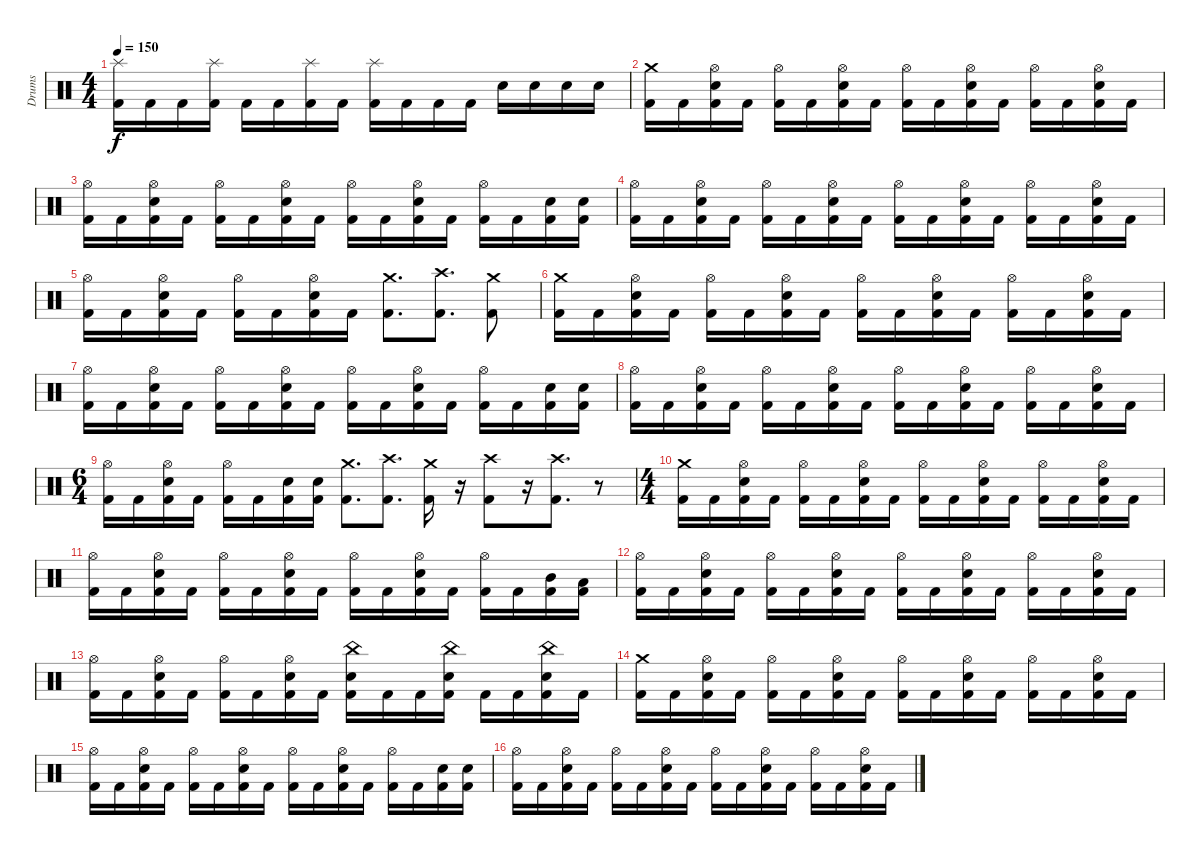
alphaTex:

\track ("Drums" "Drums") {instrument percussion}
\staff {score}
\articulation defaults
\ts (4 4)
\tempo 150
\clef neutral
\ks c
("Splash (hit)" "Kick (hit) 2").16{dy f} "Kick (hit) 2".16 "Kick (hit) 2".16 ("Splash (hit)" "Kick (hit) 2").16 "Kick (hit) 2".16 "Kick (hit) 2".16 ("Splash (hit)" "Kick (hit) 2").16 "Kick (hit) 2".16 ("Splash (hit)" "Kick (hit) 2").16 "Kick (hit) 2".16 "Kick (hit) 2".16 "Kick (hit) 2".16 "Electric Snare (hit)".16 "Electric Snare (hit)".16 "Electric Snare (hit)".16 "Electric Snare (hit)".16 |
("Crash medium (hit)" "Kick (hit) 2").16 "Kick (hit) 2".16 ("Hi-Hat (open)" "Electric Snare (hit)" "Kick (hit) 2").16 "Kick (hit) 2".16 ("Hi-Hat (open)" "Kick (hit) 2").16 "Kick (hit) 2".16 ("Hi-Hat (open)" "Electric Snare (hit)" "Kick (hit) 2").16 "Kick (hit) 2".16 ("Hi-Hat (open)" "Kick (hit) 2").16 "Kick (hit) 2".16 ("Hi-Hat (open)" "Electric Snare (hit)" "Kick (hit) 2").16 "Kick (hit) 2".16 ("Hi-Hat (open)" "Kick (hit) 2").16 "Kick (hit) 2".16 ("Hi-Hat (open)" "Electric Snare (hit)" "Kick (hit) 2").16 "Kick (hit) 2".16 |
("Hi-Hat (open)" "Kick (hit) 2").16 "Kick (hit) 2".16 ("Hi-Hat (open)" "Electric Snare (hit)" "Kick (hit) 2").16 "Kick (hit) 2".16 ("Hi-Hat (open)" "Kick (hit) 2").16 "Kick (hit) 2".16 ("Hi-Hat (open)" "Electric Snare (hit)" "Kick (hit) 2").16 "Kick (hit) 2".16 ("Hi-Hat (open)" "Kick (hit) 2").16 "Kick (hit) 2".16 ("Hi-Hat (open)" "Electric Snare (hit)" "Kick (hit) 2").16 "Kick (hit) 2".16 ("Hi-Hat (open)" "Kick (hit) 2").16 "Kick (hit) 2".16 ("Electric Snare (hit)" "Kick (hit) 2").16 ("Electric Snare (hit)" "Kick (hit) 2").16 |
("Hi-Hat (open)" "Kick (hit) 2").16 "Kick (hit) 2".16 ("Hi-Hat (open)" "Electric Snare (hit)" "Kick (hit) 2").16 "Kick (hit) 2".16 ("Hi-Hat (open)" "Kick (hit) 2").16 "Kick (hit) 2".16 ("Hi-Hat (open)" "Electric Snare (hit)" "Kick (hit) 2").16 "Kick (hit) 2".16 ("Hi-Hat (open)" "Kick (hit) 2").16 "Kick (hit) 2".16 ("Hi-Hat (open)" "Electric Snare (hit)" "Kick (hit) 2").16 "Kick (hit) 2".16 ("Hi-Hat (open)" "Kick (hit) 2").16 "Kick (hit) 2".16 ("Hi-Hat (open)" "Electric Snare (hit)" "Kick (hit) 2").16 "Kick (hit) 2".16 |
("Hi-Hat (open)" "Kick (hit) 2").16 "Kick (hit) 2".16 ("Hi-Hat (open)" "Electric Snare (hit)" "Kick (hit) 2").16 "Kick (hit) 2".16 ("Hi-Hat (open)" "Kick (hit) 2").16 "Kick (hit) 2".16 ("Hi-Hat (open)" "Electric Snare (hit)" "Kick (hit) 2").16 "Kick (hit) 2".16 ("Crash medium (hit)" "Kick (hit) 2").8{d} ("Crash high (hit)" "Kick (hit) 2").8{d} ("Crash medium (hit)" "Kick (hit) 2").8 |
("Crash medium (hit)" "Kick (hit) 2").16 "Kick (hit) 2".16 ("Hi-Hat (open)" "Electric Snare (hit)" "Kick (hit) 2").16 "Kick (hit) 2".16 ("Hi-Hat (open)" "Kick (hit) 2").16 "Kick (hit) 2".16 ("Hi-Hat (open)" "Electric Snare (hit)" "Kick (hit) 2").16 "Kick (hit) 2".16 ("Hi-Hat (open)" "Kick (hit) 2").16 "Kick (hit) 2".16 ("Hi-Hat (open)" "Electric Snare (hit)" "Kick (hit) 2").16 "Kick (hit) 2".16 ("Hi-Hat (open)" "Kick (hit) 2").16 "Kick (hit) 2".16 ("Hi-Hat (open)" "Electric Snare (hit)" "Kick (hit) 2").16 "Kick (hit) 2".16 |
("Hi-Hat (open)" "Kick (hit) 2").16 "Kick (hit) 2".16 ("Hi-Hat (open)" "Electric Snare (hit)" "Kick (hit) 2").16 "Kick (hit) 2".16 ("Hi-Hat (open)" "Kick (hit) 2").16 "Kick (hit) 2".16 ("Hi-Hat (open)" "Electric Snare (hit)" "Kick (hit) 2").16 "Kick (hit) 2".16 ("Hi-Hat (open)" "Kick (hit) 2").16 "Kick (hit) 2".16 ("Hi-Hat (open)" "Electric Snare (hit)" "Kick (hit) 2").16 "Kick (hit) 2".16 ("Hi-Hat (open)" "Kick (hit) 2").16 "Kick (hit) 2".16 ("Electric Snare (hit)" "Kick (hit) 2").16 ("Electric Snare (hit)" "Kick (hit) 2").16 |
("Hi-Hat (open)" "Kick (hit) 2").16 "Kick (hit) 2".16 ("Hi-Hat (open)" "Electric Snare (hit)" "Kick (hit) 2").16 "Kick (hit) 2".16 ("Hi-Hat (open)" "Kick (hit) 2").16 "Kick (hit) 2".16 ("Hi-Hat (open)" "Electric Snare (hit)" "Kick (hit) 2").16 "Kick (hit) 2".16 ("Hi-Hat (open)" "Kick (hit) 2").16 "Kick (hit) 2".16 ("Hi-Hat (open)" "Electric Snare (hit)" "Kick (hit) 2").16 "Kick (hit) 2".16 ("Hi-Hat (open)" "Kick (hit) 2").16 "Kick (hit) 2".16 ("Hi-Hat (open)" "Electric Snare (hit)" "Kick (hit) 2").16 "Kick (hit) 2".16 |
\ts (6 4)
("Hi-Hat (open)" "Kick (hit) 2").16 "Kick (hit) 2".16 ("Hi-Hat (open)" "Electric Snare (hit)" "Kick (hit) 2").16 "Kick (hit) 2".16 ("Hi-Hat (open)" "Kick (hit) 2").16 "Kick (hit) 2".16 ("Electric Snare (hit)" "Kick (hit) 2").16 ("Electric Snare (hit)" "Kick (hit) 2").16 ("Crash medium (hit)" "Kick (hit) 2").8{d} ("Crash high (hit)" "Kick (hit) 2").8{d} ("Crash medium (hit)" "Kick (hit) 2").16 r.16 ("Crash high (hit)" "Kick (hit) 2").8 r.16 ("Crash high (hit)" "Kick (hit) 2").8{d} r.8 |
\ts (4 4)
("Crash medium (hit)" "Kick (hit) 2").16 "Kick (hit) 2".16 ("Hi-Hat (open)" "Electric Snare (hit)" "Kick (hit) 2").16 "Kick (hit) 2".16 ("Hi-Hat (open)" "Kick (hit) 2").16 "Kick (hit) 2".16 ("Hi-Hat (open)" "Electric Snare (hit)" "Kick (hit) 2").16 "Kick (hit) 2".16 ("Hi-Hat (open)" "Kick (hit) 2").16 "Kick (hit) 2".16 ("Hi-Hat (open)" "Electric Snare (hit)" "Kick (hit) 2").16 "Kick (hit) 2".16 ("Hi-Hat (open)" "Kick (hit) 2").16 "Kick (hit) 2".16 ("Hi-Hat (open)" "Electric Snare (hit)" "Kick (hit) 2").16 "Kick (hit) 2".16 |
("Hi-Hat (open)" "Kick (hit) 2").16 "Kick (hit) 2".16 ("Hi-Hat (open)" "Electric Snare (hit)" "Kick (hit) 2").16 "Kick (hit) 2".16 ("Hi-Hat (open)" "Kick (hit) 2").16 "Kick (hit) 2".16 ("Hi-Hat (open)" "Electric Snare (hit)" "Kick (hit) 2").16 "Kick (hit) 2".16 ("Hi-Hat (open)" "Kick (hit) 2").16 "Kick (hit) 2".16 ("Hi-Hat (open)" "Electric Snare (hit)" "Kick (hit) 2").16 "Kick (hit) 2".16 ("Hi-Hat (open)" "Kick (hit) 2").16 "Kick (hit) 2".16 ("Mid Tom (hit)" "Kick (hit) 2").16 ("Low Tom (hit)" "Kick (hit) 2").16 |
("Hi-Hat (open)" "Kick (hit) 2").16 "Kick (hit) 2".16 ("Hi-Hat (open)" "Electric Snare (hit)" "Kick (hit) 2").16 "Kick (hit) 2".16 ("Hi-Hat (open)" "Kick (hit) 2").16 "Kick (hit) 2".16 ("Hi-Hat (open)" "Electric Snare (hit)" "Kick (hit) 2").16 "Kick (hit) 2".16 ("Hi-Hat (open)" "Kick (hit) 2").16 "Kick (hit) 2".16 ("Hi-Hat (open)" "Electric Snare (hit)" "Kick (hit) 2").16 "Kick (hit) 2".16 ("Hi-Hat (open)" "Kick (hit) 2").16 "Kick (hit) 2".16 ("Hi-Hat (open)" "Electric Snare (hit)" "Kick (hit) 2").16 "Kick (hit) 2".16 |
("Hi-Hat (open)" "Kick (hit) 2").16 "Kick (hit) 2".16 ("Hi-Hat (open)" "Electric Snare (hit)" "Kick (hit) 2").16 "Kick (hit) 2".16 ("Hi-Hat (open)" "Kick (hit) 2").16 "Kick (hit) 2".16 ("Hi-Hat (open)" "Electric Snare (hit)" "Kick (hit) 2").16 "Kick (hit) 2".16 ("Electric Snare (hit)" "Kick (hit) 2" "China (hit)").16 "Kick (hit) 2".16 "Kick (hit) 2".16 ("Electric Snare (hit)" "Kick (hit) 2" "China (hit)").16 "Kick (hit) 2".16 "Kick (hit) 2".16 ("Electric Snare (hit)" "Kick (hit) 2" "China (hit)").16 "Kick (hit) 2".16 |
("Crash medium (hit)" "Kick (hit) 2").16 "Kick (hit) 2".16 ("Hi-Hat (open)" "Electric Snare (hit)" "Kick (hit) 2").16 "Kick (hit) 2".16 ("Hi-Hat (open)" "Kick (hit) 2").16 "Kick (hit) 2".16 ("Hi-Hat (open)" "Electric Snare (hit)" "Kick (hit) 2").16 "Kick (hit) 2".16 ("Hi-Hat (open)" "Kick (hit) 2").16 "Kick (hit) 2".16 ("Hi-Hat (open)" "Electric Snare (hit)" "Kick (hit) 2").16 "Kick (hit) 2".16 ("Hi-Hat (open)" "Kick (hit) 2").16 "Kick (hit) 2".16 ("Hi-Hat (open)" "Electric Snare (hit)" "Kick (hit) 2").16 "Kick (hit) 2".16 |
("Hi-Hat (open)" "Kick (hit) 2").16 "Kick (hit) 2".16 ("Hi-Hat (open)" "Electric Snare (hit)" "Kick (hit) 2").16 "Kick (hit) 2".16 ("Hi-Hat (open)" "Kick (hit) 2").16 "Kick (hit) 2".16 ("Hi-Hat (open)" "Electric Snare (hit)" "Kick (hit) 2").16 "Kick (hit) 2".16 ("Hi-Hat (open)" "Kick (hit) 2").16 "Kick (hit) 2".16 ("Hi-Hat (open)" "Electric Snare (hit)" "Kick (hit) 2").16 "Kick (hit) 2".16 ("Hi-Hat (open)" "Kick (hit) 2").16 "Kick (hit) 2".16 ("Electric Snare (hit)" "Kick (hit) 2").16 ("Electric Snare (hit)" "Kick (hit) 2").16 |
("Hi-Hat (open)" "Kick (hit) 2").16 "Kick (hit) 2".16 ("Hi-Hat (open)" "Electric Snare (hit)" "Kick (hit) 2").16 "Kick (hit) 2".16 ("Hi-Hat (open)" "Kick (hit) 2").16 "Kick (hit) 2".16 ("Hi-Hat (open)" "Electric Snare (hit)" "Kick (hit) 2").16 "Kick (hit) 2".16 ("Hi-Hat (open)" "Kick (hit) 2").16 "Kick (hit) 2".16 ("Hi-Hat (open)" "Electric Snare (hit)" "Kick (hit) 2").16 "Kick (hit) 2".16 ("Hi-Hat (open)" "Kick (hit) 2").16 "Kick (hit) 2".16 ("Hi-Hat (open)" "Electric Snare (hit)" "Kick (hit) 2").16 "Kick (hit) 2".16
